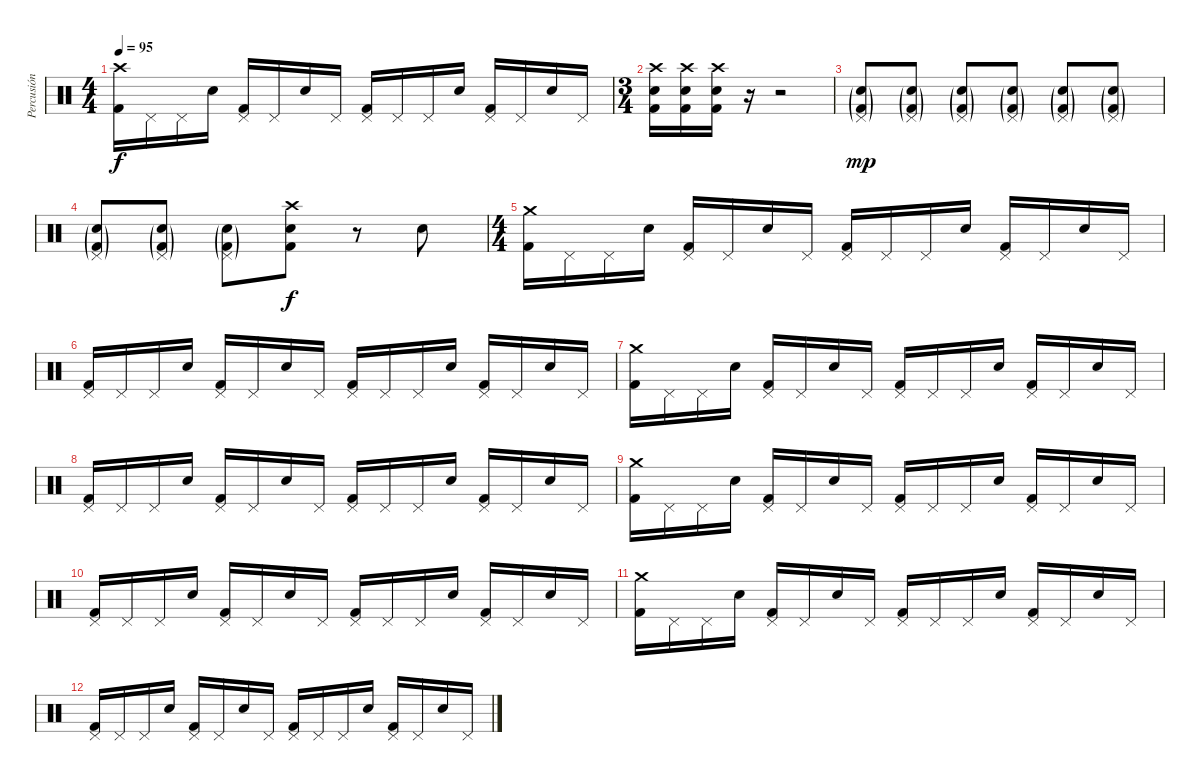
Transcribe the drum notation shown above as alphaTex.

\track ("Percusión" "Percusión") {instrument percussion}
\staff {score}
\articulation defaults
\ts (4 4)
\tempo 95
\clef neutral
\ks c
("Crash high (hit)" "Kick (hit) 2").16{dy f} "Pedal Hi-Hat (hit)".16 "Pedal Hi-Hat (hit)".16 "Electric Snare (hit)".16 ("Pedal Hi-Hat (hit)" "Kick (hit) 2").16 "Pedal Hi-Hat (hit)".16 "Electric Snare (hit)".16 "Pedal Hi-Hat (hit)".16 ("Pedal Hi-Hat (hit)" "Kick (hit) 2").16 "Pedal Hi-Hat (hit)".16 "Pedal Hi-Hat (hit)".16 "Electric Snare (hit)".16 ("Pedal Hi-Hat (hit)" "Kick (hit) 2").16 "Pedal Hi-Hat (hit)".16 "Electric Snare (hit)".16 "Pedal Hi-Hat (hit)".16 |
\ts (3 4)
("Crash high (hit)" "Electric Snare (hit)" "Kick (hit) 2").16 ("Crash high (hit)" "Electric Snare (hit)" "Kick (hit) 2").16 ("Crash high (hit)" "Electric Snare (hit)" "Kick (hit) 2").16 r.16 r.2 |
("Pedal Hi-Hat (hit)"{g} "Electric Snare (hit)"{g} "Kick (hit) 2"{g}).8{dy mp} ("Pedal Hi-Hat (hit)"{g} "Electric Snare (hit)"{g} "Kick (hit) 2"{g}).8 ("Pedal Hi-Hat (hit)"{g} "Electric Snare (hit)"{g} "Kick (hit) 2"{g}).8 ("Pedal Hi-Hat (hit)"{g} "Electric Snare (hit)"{g} "Kick (hit) 2"{g}).8 ("Pedal Hi-Hat (hit)"{g} "Electric Snare (hit)"{g} "Kick (hit) 2"{g}).8 ("Pedal Hi-Hat (hit)"{g} "Electric Snare (hit)"{g} "Kick (hit) 2"{g}).8 |
("Pedal Hi-Hat (hit)"{g} "Electric Snare (hit)"{g} "Kick (hit) 2"{g}).8 ("Pedal Hi-Hat (hit)"{g} "Electric Snare (hit)"{g} "Kick (hit) 2"{g}).8 ("Pedal Hi-Hat (hit)"{g} "Electric Snare (hit)"{g} "Kick (hit) 2"{g}).8 ("Crash high (hit)" "Electric Snare (hit)" "Kick (hit) 2").8{dy f} r.8 "Electric Snare (hit)".8 |
\ts (4 4)
("Crash medium (hit)" "Kick (hit) 2").16 "Pedal Hi-Hat (hit)".16 "Pedal Hi-Hat (hit)".16 "Electric Snare (hit)".16 ("Pedal Hi-Hat (hit)" "Kick (hit) 2").16 "Pedal Hi-Hat (hit)".16 "Electric Snare (hit)".16 "Pedal Hi-Hat (hit)".16 ("Pedal Hi-Hat (hit)" "Kick (hit) 2").16 "Pedal Hi-Hat (hit)".16 "Pedal Hi-Hat (hit)".16 "Electric Snare (hit)".16 ("Pedal Hi-Hat (hit)" "Kick (hit) 2").16 "Pedal Hi-Hat (hit)".16 "Electric Snare (hit)".16 "Pedal Hi-Hat (hit)".16 |
("Pedal Hi-Hat (hit)" "Kick (hit) 2").16 "Pedal Hi-Hat (hit)".16 "Pedal Hi-Hat (hit)".16 "Electric Snare (hit)".16 ("Pedal Hi-Hat (hit)" "Kick (hit) 2").16 "Pedal Hi-Hat (hit)".16 "Electric Snare (hit)".16 "Pedal Hi-Hat (hit)".16 ("Pedal Hi-Hat (hit)" "Kick (hit) 2").16 "Pedal Hi-Hat (hit)".16 "Pedal Hi-Hat (hit)".16 "Electric Snare (hit)".16 ("Pedal Hi-Hat (hit)" "Kick (hit) 2").16 "Pedal Hi-Hat (hit)".16 "Electric Snare (hit)".16 "Pedal Hi-Hat (hit)".16 |
("Crash medium (hit)" "Kick (hit) 2").16 "Pedal Hi-Hat (hit)".16 "Pedal Hi-Hat (hit)".16 "Electric Snare (hit)".16 ("Pedal Hi-Hat (hit)" "Kick (hit) 2").16 "Pedal Hi-Hat (hit)".16 "Electric Snare (hit)".16 "Pedal Hi-Hat (hit)".16 ("Pedal Hi-Hat (hit)" "Kick (hit) 2").16 "Pedal Hi-Hat (hit)".16 "Pedal Hi-Hat (hit)".16 "Electric Snare (hit)".16 ("Pedal Hi-Hat (hit)" "Kick (hit) 2").16 "Pedal Hi-Hat (hit)".16 "Electric Snare (hit)".16 "Pedal Hi-Hat (hit)".16 |
("Pedal Hi-Hat (hit)" "Kick (hit) 2").16 "Pedal Hi-Hat (hit)".16 "Pedal Hi-Hat (hit)".16 "Electric Snare (hit)".16 ("Pedal Hi-Hat (hit)" "Kick (hit) 2").16 "Pedal Hi-Hat (hit)".16 "Electric Snare (hit)".16 "Pedal Hi-Hat (hit)".16 ("Pedal Hi-Hat (hit)" "Kick (hit) 2").16 "Pedal Hi-Hat (hit)".16 "Pedal Hi-Hat (hit)".16 "Electric Snare (hit)".16 ("Pedal Hi-Hat (hit)" "Kick (hit) 2").16 "Pedal Hi-Hat (hit)".16 "Electric Snare (hit)".16 "Pedal Hi-Hat (hit)".16 |
("Crash medium (hit)" "Kick (hit) 2").16 "Pedal Hi-Hat (hit)".16 "Pedal Hi-Hat (hit)".16 "Electric Snare (hit)".16 ("Pedal Hi-Hat (hit)" "Kick (hit) 2").16 "Pedal Hi-Hat (hit)".16 "Electric Snare (hit)".16 "Pedal Hi-Hat (hit)".16 ("Pedal Hi-Hat (hit)" "Kick (hit) 2").16 "Pedal Hi-Hat (hit)".16 "Pedal Hi-Hat (hit)".16 "Electric Snare (hit)".16 ("Pedal Hi-Hat (hit)" "Kick (hit) 2").16 "Pedal Hi-Hat (hit)".16 "Electric Snare (hit)".16 "Pedal Hi-Hat (hit)".16 |
("Pedal Hi-Hat (hit)" "Kick (hit) 2").16 "Pedal Hi-Hat (hit)".16 "Pedal Hi-Hat (hit)".16 "Electric Snare (hit)".16 ("Pedal Hi-Hat (hit)" "Kick (hit) 2").16 "Pedal Hi-Hat (hit)".16 "Electric Snare (hit)".16 "Pedal Hi-Hat (hit)".16 ("Pedal Hi-Hat (hit)" "Kick (hit) 2").16 "Pedal Hi-Hat (hit)".16 "Pedal Hi-Hat (hit)".16 "Electric Snare (hit)".16 ("Pedal Hi-Hat (hit)" "Kick (hit) 2").16 "Pedal Hi-Hat (hit)".16 "Electric Snare (hit)".16 "Pedal Hi-Hat (hit)".16 |
("Crash medium (hit)" "Kick (hit) 2").16 "Pedal Hi-Hat (hit)".16 "Pedal Hi-Hat (hit)".16 "Electric Snare (hit)".16 ("Pedal Hi-Hat (hit)" "Kick (hit) 2").16 "Pedal Hi-Hat (hit)".16 "Electric Snare (hit)".16 "Pedal Hi-Hat (hit)".16 ("Pedal Hi-Hat (hit)" "Kick (hit) 2").16 "Pedal Hi-Hat (hit)".16 "Pedal Hi-Hat (hit)".16 "Electric Snare (hit)".16 ("Pedal Hi-Hat (hit)" "Kick (hit) 2").16 "Pedal Hi-Hat (hit)".16 "Electric Snare (hit)".16 "Pedal Hi-Hat (hit)".16 |
("Pedal Hi-Hat (hit)" "Kick (hit) 2").16 "Pedal Hi-Hat (hit)".16 "Pedal Hi-Hat (hit)".16 "Electric Snare (hit)".16 ("Pedal Hi-Hat (hit)" "Kick (hit) 2").16 "Pedal Hi-Hat (hit)".16 "Electric Snare (hit)".16 "Pedal Hi-Hat (hit)".16 ("Pedal Hi-Hat (hit)" "Kick (hit) 2").16 "Pedal Hi-Hat (hit)".16 "Pedal Hi-Hat (hit)".16 "Electric Snare (hit)".16 ("Pedal Hi-Hat (hit)" "Kick (hit) 2").16 "Pedal Hi-Hat (hit)".16 "Electric Snare (hit)".16 "Pedal Hi-Hat (hit)".16
